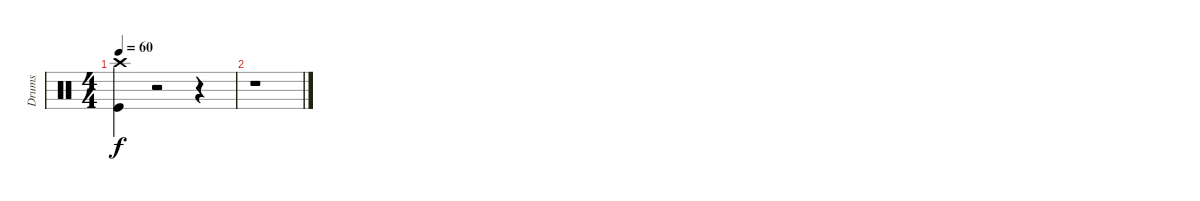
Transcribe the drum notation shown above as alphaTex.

\track ("Drums" "Drums") {instrument percussion}
\staff {score}
\articulation defaults
\ts (4 4)
\tempo 60
\clef neutral
\ks c
("Crash high (hit)" "Kick (hit)").4{dy f} r.2 r.4 |
r.1
